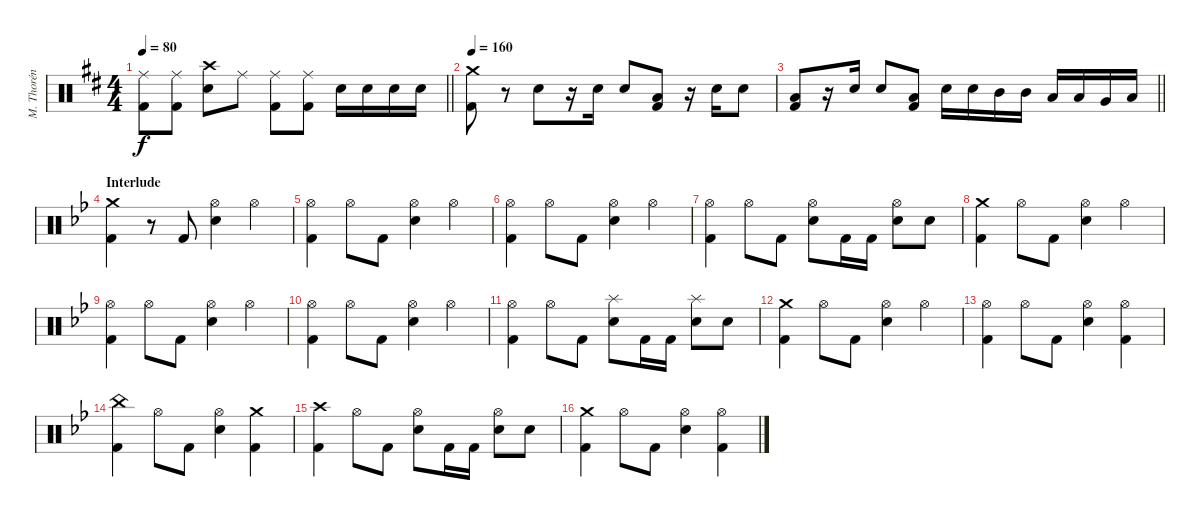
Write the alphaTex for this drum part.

\track ("M. Thorén (Drums)" "M. Thorén ") {instrument percussion}
\staff {score}
\articulation defaults
\ts (4 4)
\tempo 80
\clef neutral
\barLineRight lightlight
\ks bminor
("Ride (middle)" "Kick (hit) 2").8{dy f} ("Ride (middle)" "Kick (hit) 2").8 ("Crash high (hit)" "Electric Snare (hit)").8 "Ride (middle)".8 ("Ride (middle)" "Kick (hit) 2").8 ("Ride (middle)" "Kick (hit) 2").8 "Electric Snare (hit)".16 "Electric Snare (hit)".16 "Electric Snare (hit)".16 "Electric Snare (hit)".16 |
\tempo 160
("Crash medium (hit)" "Kick (hit) 2").8 r.8 "Electric Snare (hit)".8 r.16 "Electric Snare (hit)".16 "Electric Snare (hit)".8 ("Low Tom (hit)" "Kick (hit) 2").8 r.16 "Electric Snare (hit)".16 "Electric Snare (hit)".8 |
\barLineRight lightlight
("Low Tom (hit)" "Kick (hit) 2").8 r.16 "Electric Snare (hit)".16 "Electric Snare (hit)".8 ("Low Tom (hit)" "Kick (hit) 2").8 "Electric Snare (hit)".16 "Electric Snare (hit)".16 "Mid Tom (hit)".16 "Mid Tom (hit)".16 "Low Tom (hit)".16 "Low Tom (hit)".16 "Very Low Tom (hit)".16 "Low Floor Tom (hit)".16 |
\section ("" "Interlude")
\ks gminor
("Crash medium (hit)" "Kick (hit) 2").4{volume 13} r.8 "Kick (hit) 2".8 ("Hi-Hat (open)" "Electric Snare (hit)").4 "Hi-Hat (open)".4 |
("Hi-Hat (open)" "Kick (hit) 2").4 "Hi-Hat (open)".8 "Kick (hit) 2".8 ("Hi-Hat (open)" "Electric Snare (hit)").4 "Hi-Hat (open)".4 |
("Hi-Hat (open)" "Kick (hit) 2").4 "Hi-Hat (open)".8 "Kick (hit) 2".8 ("Hi-Hat (open)" "Electric Snare (hit)").4 "Hi-Hat (open)".4 |
("Hi-Hat (open)" "Kick (hit) 2").4 "Hi-Hat (open)".8 "Kick (hit) 2".8 ("Hi-Hat (open)" "Electric Snare (hit)").8 "Kick (hit) 2".16 "Kick (hit) 2".16 ("Hi-Hat (open)" "Electric Snare (hit)").8 "Electric Snare (hit)".8 |
("Crash medium (hit)" "Kick (hit) 2").4 "Hi-Hat (open)".8 "Kick (hit) 2".8 ("Hi-Hat (open)" "Electric Snare (hit)").4 "Hi-Hat (open)".4 |
("Hi-Hat (open)" "Kick (hit) 2").4 "Hi-Hat (open)".8 "Kick (hit) 2".8 ("Hi-Hat (open)" "Electric Snare (hit)").4 "Hi-Hat (open)".4 |
("Hi-Hat (open)" "Kick (hit) 2").4 "Hi-Hat (open)".8 "Kick (hit) 2".8 ("Hi-Hat (open)" "Electric Snare (hit)").4 "Hi-Hat (open)".4 |
("Hi-Hat (open)" "Kick (hit) 2").4 "Hi-Hat (open)".8 "Kick (hit) 2".8 ("Splash (hit)" "Electric Snare (hit)").8 "Kick (hit) 2".16 "Kick (hit) 2".16 ("Splash (hit)" "Electric Snare (hit)").8 "Electric Snare (hit)".8 |
("Crash medium (hit)" "Kick (hit) 2").4 "Hi-Hat (open)".8 "Kick (hit) 2".8 ("Hi-Hat (open)" "Electric Snare (hit)").4 "Hi-Hat (open)".4 |
("Hi-Hat (open)" "Kick (hit) 2").4 "Hi-Hat (open)".8 "Kick (hit) 2".8 ("Hi-Hat (open)" "Electric Snare (hit)").4 ("Hi-Hat (open)" "Kick (hit) 2").4 |
("China (hit)" "Kick (hit) 2").4 "Hi-Hat (open)".8 "Kick (hit) 2".8 ("Hi-Hat (open)" "Electric Snare (hit)").4 ("Crash medium (hit)" "Kick (hit) 2").4 |
("Crash high (hit)" "Kick (hit) 2").4 "Hi-Hat (open)".8 "Kick (hit) 2".8 ("Hi-Hat (open)" "Electric Snare (hit)").8 "Kick (hit) 2".16 "Kick (hit) 2".16 ("Hi-Hat (open)" "Electric Snare (hit)").8 "Electric Snare (hit)".8 |
("Crash medium (hit)" "Kick (hit) 2").4 "Hi-Hat (open)".8 "Kick (hit) 2".8 ("Hi-Hat (open)" "Electric Snare (hit)").4 ("Hi-Hat (open)" "Kick (hit) 2").4
